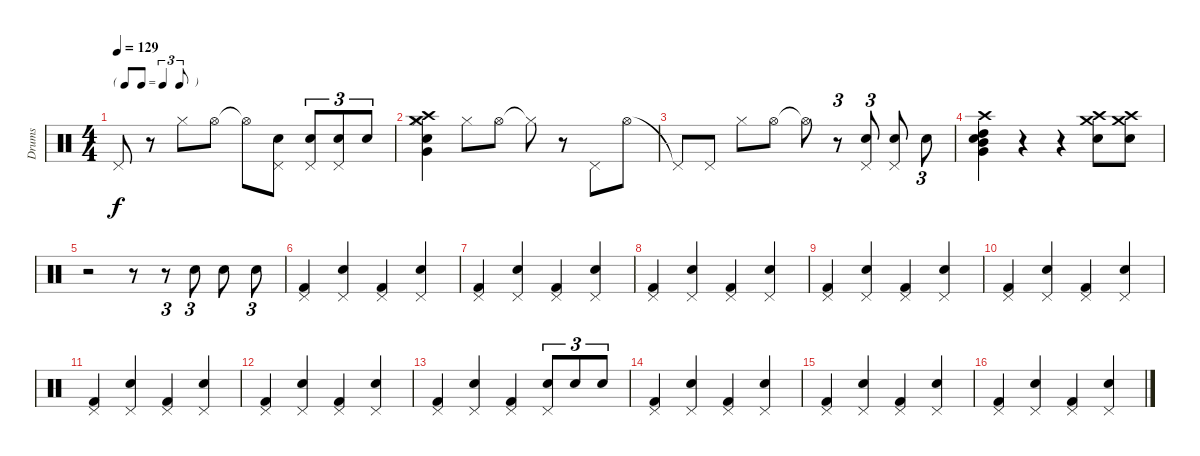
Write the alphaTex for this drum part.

\track ("Drums" "Drums") {instrument percussion}
\staff {score}
\articulation defaults
\ts (4 4)
\tf triplet8th
\tempo 129
\clef neutral
\ks c "Pedal Hi-Hat (hit)"{t}.8{dy f}
r.8 "Hi-Hat (closed)".8 "Hi-Hat (open)".8 "Hi-Hat (open)"{t}.8 ("Pedal Hi-Hat (hit)" "Electric Snare (hit)").8 ("Pedal Hi-Hat (hit)" "Electric Snare (hit)").8{tu (3 2)} ("Pedal Hi-Hat (hit)" "Electric Snare (hit)").8{tu (3 2)} "Electric Snare (hit)".8{tu (3 2)} |
("Very Low Tom (hit)" "Hi-Hat (closed)" "Crash high (hit)" "Crash medium (hit)" "Electric Snare (hit)").4 "Hi-Hat (closed)".8 "Hi-Hat (open)".8 "Hi-Hat (closed)"{t}.8 r.8 "Pedal Hi-Hat (hit)".8 "Hi-Hat (open)".8 |
"Pedal Hi-Hat (hit)"{t}.8 "Pedal Hi-Hat (hit)".8 "Hi-Hat (closed)".8 "Hi-Hat (open)".8 "Hi-Hat (open)"{t}.8 r.8{tu (3 2)} ("Pedal Hi-Hat (hit)" "Electric Snare (hit)").8{tu (3 2)} ("Pedal Hi-Hat (hit)" "Electric Snare (hit)").8 "Electric Snare (hit)".8{tu (3 2)} |
("High Tom (hit)" "Crash high (hit)" "Very Low Tom (hit)" "Electric Snare (hit)" "Mid Tom (hit)").4 r.4 r.4 ("Crash high (hit)" "Crash medium (hit)" "Electric Snare (hit)").8 ("Crash high (hit)" "Crash medium (hit)" "Electric Snare (hit)").8 |
r.2 r.8 r.8{tu (3 2)} "Electric Snare (hit)".8{tu (3 2)} "Electric Snare (hit)".8 "Electric Snare (hit)".8{tu (3 2)} |
("Pedal Hi-Hat (hit)" "Kick (hit) 2").4 ("Pedal Hi-Hat (hit)" "Electric Snare (hit)").4 ("Pedal Hi-Hat (hit)" "Kick (hit) 2").4 ("Pedal Hi-Hat (hit)" "Electric Snare (hit)").4 |
("Pedal Hi-Hat (hit)" "Kick (hit) 2").4 ("Pedal Hi-Hat (hit)" "Electric Snare (hit)").4 ("Pedal Hi-Hat (hit)" "Kick (hit) 2").4 ("Pedal Hi-Hat (hit)" "Electric Snare (hit)").4 |
("Pedal Hi-Hat (hit)" "Kick (hit) 2").4 ("Pedal Hi-Hat (hit)" "Electric Snare (hit)").4 ("Pedal Hi-Hat (hit)" "Kick (hit) 2").4 ("Pedal Hi-Hat (hit)" "Electric Snare (hit)").4 |
("Pedal Hi-Hat (hit)" "Kick (hit) 2").4 ("Pedal Hi-Hat (hit)" "Electric Snare (hit)").4 ("Pedal Hi-Hat (hit)" "Kick (hit) 2").4 ("Pedal Hi-Hat (hit)" "Electric Snare (hit)").4 |
("Pedal Hi-Hat (hit)" "Kick (hit) 2").4 ("Pedal Hi-Hat (hit)" "Electric Snare (hit)").4 ("Pedal Hi-Hat (hit)" "Kick (hit) 2").4 ("Pedal Hi-Hat (hit)" "Electric Snare (hit)").4 |
("Pedal Hi-Hat (hit)" "Kick (hit) 2").4 ("Pedal Hi-Hat (hit)" "Electric Snare (hit)").4 ("Pedal Hi-Hat (hit)" "Kick (hit) 2").4 ("Pedal Hi-Hat (hit)" "Electric Snare (hit)").4 |
("Pedal Hi-Hat (hit)" "Kick (hit) 2").4 ("Pedal Hi-Hat (hit)" "Electric Snare (hit)").4 ("Pedal Hi-Hat (hit)" "Kick (hit) 2").4 ("Pedal Hi-Hat (hit)" "Electric Snare (hit)").4 |
("Pedal Hi-Hat (hit)" "Kick (hit) 2").4 ("Pedal Hi-Hat (hit)" "Electric Snare (hit)").4 ("Pedal Hi-Hat (hit)" "Kick (hit) 2").4 ("Pedal Hi-Hat (hit)" "Electric Snare (hit)").8{tu (3 2)} "Electric Snare (hit)".8{tu (3 2)} "Electric Snare (hit)".8{tu (3 2)} |
("Pedal Hi-Hat (hit)" "Kick (hit) 2").4 ("Pedal Hi-Hat (hit)" "Electric Snare (hit)").4 ("Pedal Hi-Hat (hit)" "Kick (hit) 2").4 ("Pedal Hi-Hat (hit)" "Electric Snare (hit)").4 |
("Pedal Hi-Hat (hit)" "Kick (hit) 2").4 ("Pedal Hi-Hat (hit)" "Electric Snare (hit)").4 ("Pedal Hi-Hat (hit)" "Kick (hit) 2").4 ("Pedal Hi-Hat (hit)" "Electric Snare (hit)").4 |
("Pedal Hi-Hat (hit)" "Kick (hit) 2").4 ("Pedal Hi-Hat (hit)" "Electric Snare (hit)").4 ("Pedal Hi-Hat (hit)" "Kick (hit) 2").4 ("Pedal Hi-Hat (hit)" "Electric Snare (hit)").4
